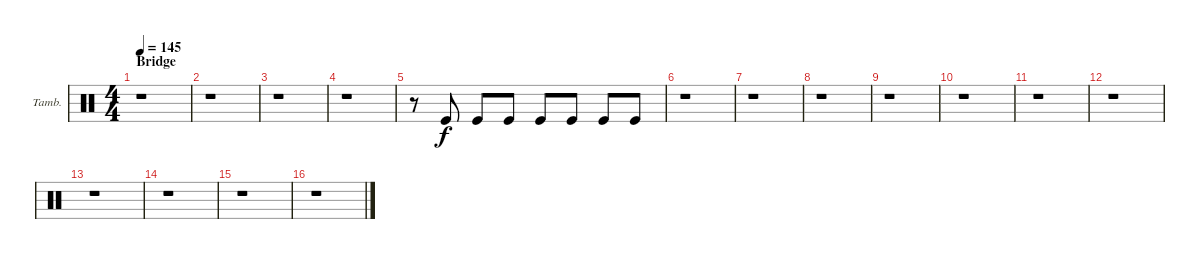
\defaultSystemsLayout 4
\bracketExtendMode groupsimilarinstruments
\firstSystemTrackNameOrientation horizontal
\otherSystemsTrackNameOrientation horizontal
\track ("Matt Uychich Tambourine" "Tamb.") {instrument percussion}
\staff {score}
\articulation defaults
\ts (4 4)
\section ("" "Bridge")
\tempo 145
\clef neutral
\scale
0.333333
\ks c
r.1{dy f} |
\scale
0.333333 r.1 |
\scale
0.333333 r.1 |
\scale
0.333333 r.1 |
\scale
0.333333 r.8 "Kick (hit)".8 "Kick (hit)".8 "Kick (hit)".8 "Kick (hit)".8 "Kick (hit)".8 "Kick (hit)".8 "Kick (hit)".8 |
\scale
0.333333 r.1 |
\scale
0.333333 r.1 |
\scale
0.333333 r.1 |
\scale
0.333333 r.1 |
\scale
0.333333 r.1 |
\scale
0.333333 r.1 |
\scale
0.333333 r.1 |
\scale
0.333333 r.1 |
\scale
0.333333 r.1 |
\scale
0.333333 r.1 |
\scale
0.333333 r.1
